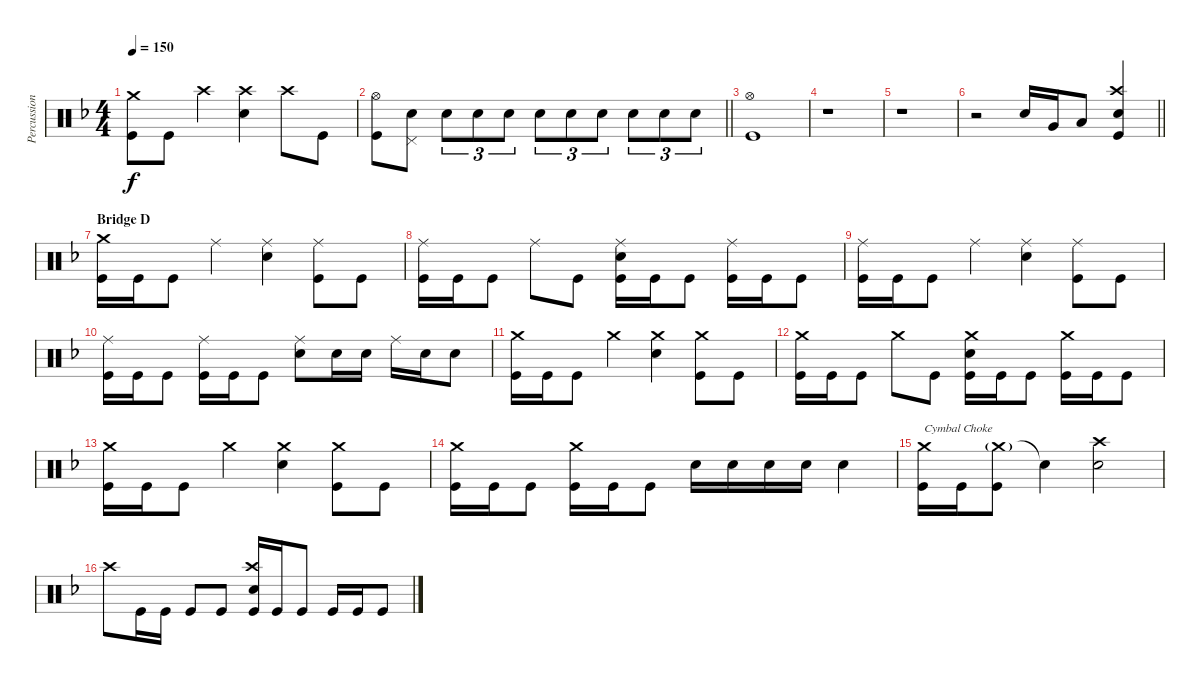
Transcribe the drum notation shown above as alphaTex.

\track ("Percussion" "Percussion") {instrument percussion}
\staff {score}
\articulation defaults
\ts (4 4)
\tempo 150
\clef neutral
\ks f
("Crash medium (hit)" "Kick (hit)").8{dy f} "Kick (hit)".8 "Crash high (hit)".4 ("Crash high (hit)" "Electric Snare (hit)").4 "Crash high (hit)".8 "Kick (hit)".8 |
\barLineRight lightlight
("Hi-Hat (open)" "Kick (hit)").8 ("Pedal Hi-Hat (hit)" "Electric Snare (hit)").8 "Electric Snare (hit)".8{tu (3 2)} "Electric Snare (hit)".8{tu (3 2)} "Electric Snare (hit)".8{tu (3 2)} "Electric Snare (hit)".8{tu (3 2)} "Electric Snare (hit)".8{tu (3 2)} "Electric Snare (hit)".8{tu (3 2)} "Electric Snare (hit)".8{tu (3 2)} "Electric Snare (hit)".8{tu (3 2)} "Electric Snare (hit)".8{tu (3 2)} |
\section ("" "")
("Hi-Hat (open)" "Kick (hit)").1 |
r.1 |
r.1 |
\barLineRight lightlight
r.2 "Electric Snare (hit)".16 "Very Low Tom (hit)".16 "Low Floor Tom (hit)".8 ("Crash high (hit)" "Electric Snare (hit)" "Kick (hit)").4 |
\section ("" "Bridge D")
("Crash medium (hit)" "Kick (hit)").16 "Kick (hit)".16 "Kick (hit)".8 "Ride (middle)".4 ("Ride (middle)" "Electric Snare (hit)").4 ("Ride (middle)" "Kick (hit)").8 "Kick (hit)".8 |
("Ride (middle)" "Kick (hit)").16 "Kick (hit)".16 "Kick (hit)".8 "Ride (middle)".8 "Kick (hit)".8 ("Ride (middle)" "Electric Snare (hit)" "Kick (hit)").16 "Kick (hit)".16 "Kick (hit)".8 ("Ride (middle)" "Kick (hit)").16 "Kick (hit)".16 "Kick (hit)".8 |
("Ride (middle)" "Kick (hit)").16 "Kick (hit)".16 "Kick (hit)".8 "Ride (middle)".4 ("Ride (middle)" "Electric Snare (hit)").4 ("Ride (middle)" "Kick (hit)").8 "Kick (hit)".8 |
("Ride (middle)" "Kick (hit)").16 "Kick (hit)".16 "Kick (hit)".8 ("Ride (middle)" "Kick (hit)").16 "Kick (hit)".16 "Kick (hit)".8 ("Ride (middle)" "Electric Snare (hit)").8 "Electric Snare (hit)".16 "Electric Snare (hit)".16 "Ride (middle)".16 "Electric Snare (hit)".16 "Electric Snare (hit)".8 |
("Crash medium (hit)" "Kick (hit)").16 "Kick (hit)".16 "Kick (hit)".8 "Crash medium (hit)".4 ("Crash medium (hit)" "Electric Snare (hit)").4 ("Crash medium (hit)" "Kick (hit)").8 "Kick (hit)".8 |
("Crash medium (hit)" "Kick (hit)").16 "Kick (hit)".16 "Kick (hit)".8 "Crash medium (hit)".8 "Kick (hit)".8 ("Crash medium (hit)" "Electric Snare (hit)" "Kick (hit)").16 "Kick (hit)".16 "Kick (hit)".8 ("Crash medium (hit)" "Kick (hit)").16 "Kick (hit)".16 "Kick (hit)".8 |
("Crash medium (hit)" "Kick (hit)").16 "Kick (hit)".16 "Kick (hit)".8 "Crash medium (hit)".4 ("Crash medium (hit)" "Electric Snare (hit)").4 ("Crash medium (hit)" "Kick (hit)").8 "Kick (hit)".8 |
("Crash medium (hit)" "Kick (hit)").16 "Kick (hit)".16 "Kick (hit)".8 ("Crash medium (hit)" "Kick (hit)").16 "Kick (hit)".16 "Kick (hit)".8 "Electric Snare (hit)".16 "Electric Snare (hit)".16 "Electric Snare (hit)".16 "Electric Snare (hit)".16 "Electric Snare (hit)".4 |
("Crash medium (hit)" "Kick (hit)").16{txt "Cymbal Choke"} "Kick (hit)".16 ("Crash medium (hit)"{g} "Kick (hit)").8 "Snare (hit)"{t}.4 ("Crash high (hit)" "Electric Snare (hit)").2 |
"Crash high (hit)".8 "Kick (hit)".16 "Kick (hit)".16 "Kick (hit)".8 "Kick (hit)".8 ("Crash high (hit)" "Electric Snare (hit)" "Kick (hit)").16 "Kick (hit)".16 "Kick (hit)".8 "Kick (hit)".16 "Kick (hit)".16 "Kick (hit)".8
